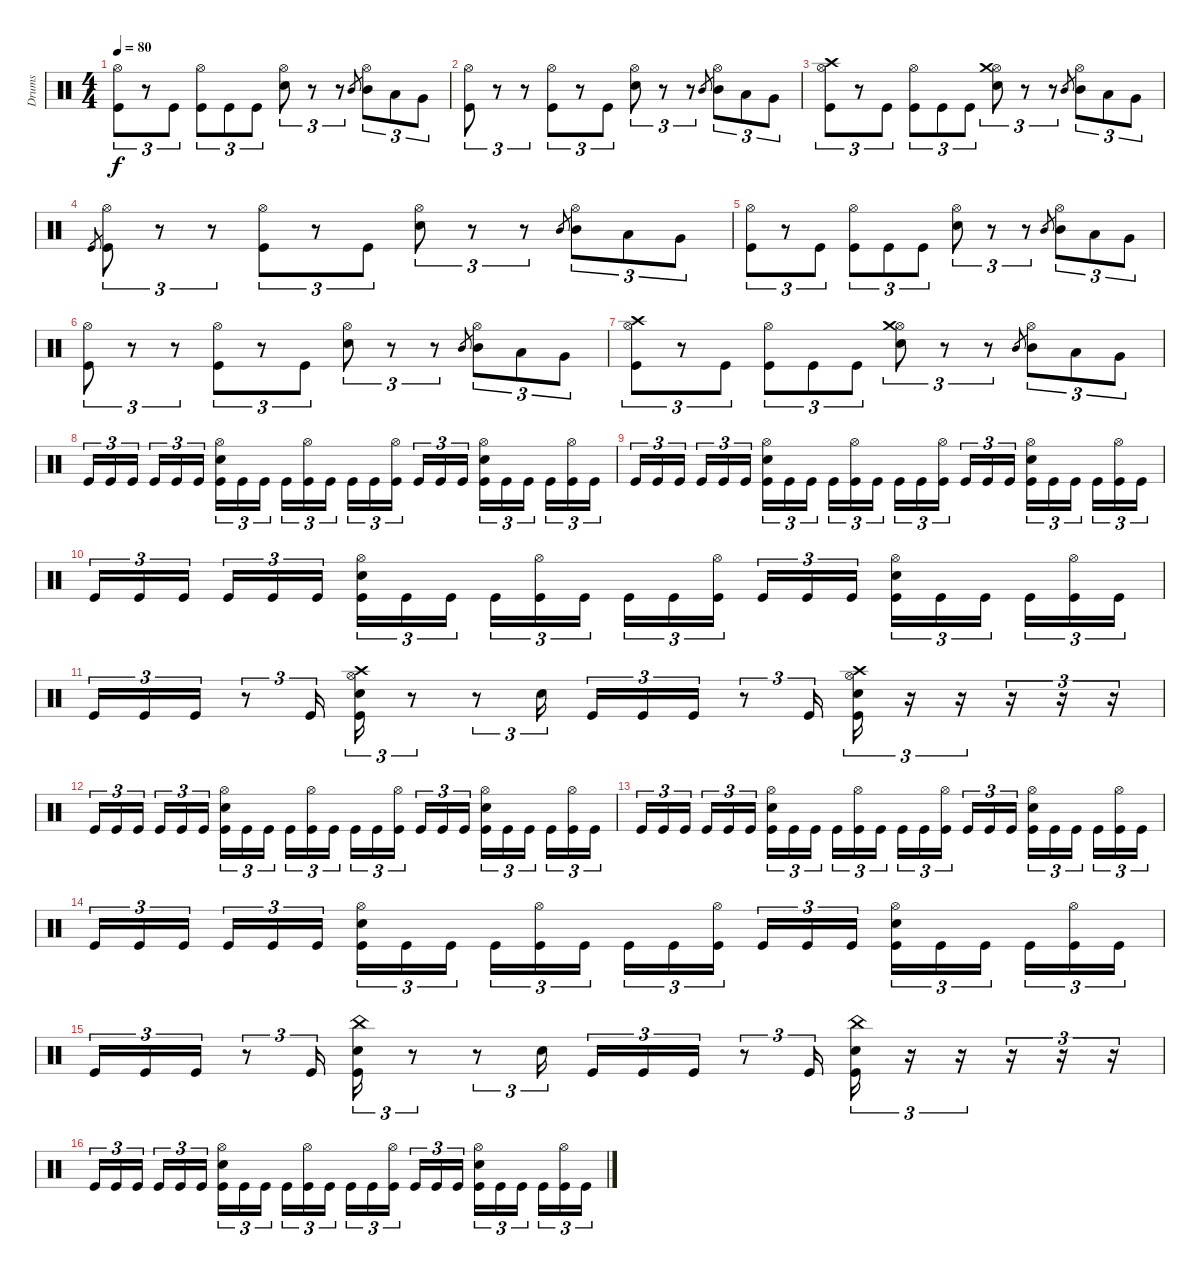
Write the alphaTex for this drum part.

\track ("Drums" "Drums") {instrument percussion}
\staff {score}
\articulation defaults
\ts (4 4)
\tempo 80
\clef neutral
\ks c
("Hi-Hat (open)" "Kick (hit)").8{tu (3 2) dy f} r.8{tu (3 2)} "Kick (hit)".8{tu (3 2)} ("Hi-Hat (open)" "Kick (hit)").8{tu (3 2)} "Kick (hit)".8{tu (3 2)} "Kick (hit)".8{tu (3 2)} ("Hi-Hat (open)" "Snare (hit) 2").8{tu (3 2)} r.8{tu (3 2)} r.8{tu (3 2)} "Mid Tom (hit)".8{gr} ("Hi-Hat (open)" "Mid Tom (hit)").8{tu (3 2)} "Low Tom (hit)".8{tu (3 2)} "Very Low Tom (hit)".8{tu (3 2)} |
("Hi-Hat (open)" "Kick (hit)").8{tu (3 2)} r.8{tu (3 2)} r.8{tu (3 2)} ("Hi-Hat (open)" "Kick (hit)").8{tu (3 2)} r.8{tu (3 2)} "Kick (hit)".8{tu (3 2)} ("Hi-Hat (open)" "Snare (hit) 2").8{tu (3 2)} r.8{tu (3 2)} r.8{tu (3 2)} "Mid Tom (hit)".8{gr} ("Hi-Hat (open)" "Mid Tom (hit)").8{tu (3 2)} "Low Tom (hit)".8{tu (3 2)} "Very Low Tom (hit)".8{tu (3 2)} |
("Hi-Hat (open)" "Crash high (hit)" "Kick (hit)").8{tu (3 2)} r.8{tu (3 2)} "Kick (hit)".8{tu (3 2)} ("Hi-Hat (open)" "Kick (hit)").8{tu (3 2)} "Kick (hit)".8{tu (3 2)} "Kick (hit)".8{tu (3 2)} ("Hi-Hat (open)" "Crash medium (hit)" "Snare (hit) 2").8{tu (3 2)} r.8{tu (3 2)} r.8{tu (3 2)} "Mid Tom (hit)".8{gr} ("Hi-Hat (open)" "Mid Tom (hit)").8{tu (3 2)} "Low Tom (hit)".8{tu (3 2)} "Very Low Tom (hit)".8{tu (3 2)} |
"Kick (hit)".8{gr} ("Hi-Hat (open)" "Kick (hit)").8{tu (3 2)} r.8{tu (3 2)} r.8{tu (3 2)} ("Hi-Hat (open)" "Kick (hit)").8{tu (3 2)} r.8{tu (3 2)} "Kick (hit)".8{tu (3 2)} ("Hi-Hat (open)" "Snare (hit) 2").8{tu (3 2)} r.8{tu (3 2)} r.8{tu (3 2)} "Mid Tom (hit)".8{gr} ("Hi-Hat (open)" "Mid Tom (hit)").8{tu (3 2)} "Low Tom (hit)".8{tu (3 2)} "Very Low Tom (hit)".8{tu (3 2)} |
("Hi-Hat (open)" "Kick (hit)").8{tu (3 2)} r.8{tu (3 2)} "Kick (hit)".8{tu (3 2)} ("Hi-Hat (open)" "Kick (hit)").8{tu (3 2)} "Kick (hit)".8{tu (3 2)} "Kick (hit)".8{tu (3 2)} ("Hi-Hat (open)" "Snare (hit) 2").8{tu (3 2)} r.8{tu (3 2)} r.8{tu (3 2)} "Mid Tom (hit)".8{gr} ("Hi-Hat (open)" "Mid Tom (hit)").8{tu (3 2)} "Low Tom (hit)".8{tu (3 2)} "Very Low Tom (hit)".8{tu (3 2)} |
("Hi-Hat (open)" "Kick (hit)").8{tu (3 2)} r.8{tu (3 2)} r.8{tu (3 2)} ("Hi-Hat (open)" "Kick (hit)").8{tu (3 2)} r.8{tu (3 2)} "Kick (hit)".8{tu (3 2)} ("Hi-Hat (open)" "Snare (hit) 2").8{tu (3 2)} r.8{tu (3 2)} r.8{tu (3 2)} "Mid Tom (hit)".8{gr} ("Hi-Hat (open)" "Mid Tom (hit)").8{tu (3 2)} "Low Tom (hit)".8{tu (3 2)} "Very Low Tom (hit)".8{tu (3 2)} |
("Hi-Hat (open)" "Crash high (hit)" "Kick (hit)").8{tu (3 2)} r.8{tu (3 2)} "Kick (hit)".8{tu (3 2)} ("Hi-Hat (open)" "Kick (hit)").8{tu (3 2)} "Kick (hit)".8{tu (3 2)} "Kick (hit)".8{tu (3 2)} ("Hi-Hat (open)" "Crash medium (hit)" "Snare (hit) 2").8{tu (3 2)} r.8{tu (3 2)} r.8{tu (3 2)} "Mid Tom (hit)".8{gr} ("Hi-Hat (open)" "Mid Tom (hit)").8{tu (3 2)} "Low Tom (hit)".8{tu (3 2)} "Very Low Tom (hit)".8{tu (3 2)} |
"Kick (hit)".16{tu (3 2)} "Kick (hit)".16{tu (3 2)} "Kick (hit)".16{tu (3 2)} "Kick (hit)".16{tu (3 2)} "Kick (hit)".16{tu (3 2)} "Kick (hit)".16{tu (3 2)} ("Hi-Hat (open)" "Snare (hit) 2" "Kick (hit)").16{tu (3 2)} "Kick (hit)".16{tu (3 2)} "Kick (hit)".16{tu (3 2)} "Kick (hit)".16{tu (3 2)} ("Hi-Hat (open)" "Kick (hit)").16{tu (3 2)} "Kick (hit)".16{tu (3 2)} "Kick (hit)".16{tu (3 2)} "Kick (hit)".16{tu (3 2)} ("Hi-Hat (open)" "Kick (hit)").16{tu (3 2)} "Kick (hit)".16{tu (3 2)} "Kick (hit)".16{tu (3 2)} "Kick (hit)".16{tu (3 2)} ("Hi-Hat (open)" "Snare (hit) 2" "Kick (hit)").16{tu (3 2)} "Kick (hit)".16{tu (3 2)} "Kick (hit)".16{tu (3 2)} "Kick (hit)".16{tu (3 2)} ("Hi-Hat (open)" "Kick (hit)").16{tu (3 2)} "Kick (hit)".16{tu (3 2)} |
"Kick (hit)".16{tu (3 2)} "Kick (hit)".16{tu (3 2)} "Kick (hit)".16{tu (3 2)} "Kick (hit)".16{tu (3 2)} "Kick (hit)".16{tu (3 2)} "Kick (hit)".16{tu (3 2)} ("Hi-Hat (open)" "Snare (hit) 2" "Kick (hit)").16{tu (3 2)} "Kick (hit)".16{tu (3 2)} "Kick (hit)".16{tu (3 2)} "Kick (hit)".16{tu (3 2)} ("Hi-Hat (open)" "Kick (hit)").16{tu (3 2)} "Kick (hit)".16{tu (3 2)} "Kick (hit)".16{tu (3 2)} "Kick (hit)".16{tu (3 2)} ("Hi-Hat (open)" "Kick (hit)").16{tu (3 2)} "Kick (hit)".16{tu (3 2)} "Kick (hit)".16{tu (3 2)} "Kick (hit)".16{tu (3 2)} ("Hi-Hat (open)" "Snare (hit) 2" "Kick (hit)").16{tu (3 2)} "Kick (hit)".16{tu (3 2)} "Kick (hit)".16{tu (3 2)} "Kick (hit)".16{tu (3 2)} ("Hi-Hat (open)" "Kick (hit)").16{tu (3 2)} "Kick (hit)".16{tu (3 2)} |
"Kick (hit)".16{tu (3 2)} "Kick (hit)".16{tu (3 2)} "Kick (hit)".16{tu (3 2)} "Kick (hit)".16{tu (3 2)} "Kick (hit)".16{tu (3 2)} "Kick (hit)".16{tu (3 2)} ("Hi-Hat (open)" "Snare (hit) 2" "Kick (hit)").16{tu (3 2)} "Kick (hit)".16{tu (3 2)} "Kick (hit)".16{tu (3 2)} "Kick (hit)".16{tu (3 2)} ("Hi-Hat (open)" "Kick (hit)").16{tu (3 2)} "Kick (hit)".16{tu (3 2)} "Kick (hit)".16{tu (3 2)} "Kick (hit)".16{tu (3 2)} ("Hi-Hat (open)" "Kick (hit)").16{tu (3 2)} "Kick (hit)".16{tu (3 2)} "Kick (hit)".16{tu (3 2)} "Kick (hit)".16{tu (3 2)} ("Hi-Hat (open)" "Snare (hit) 2" "Kick (hit)").16{tu (3 2)} "Kick (hit)".16{tu (3 2)} "Kick (hit)".16{tu (3 2)} "Kick (hit)".16{tu (3 2)} ("Hi-Hat (open)" "Kick (hit)").16{tu (3 2)} "Kick (hit)".16{tu (3 2)} |
"Kick (hit)".16{tu (3 2)} "Kick (hit)".16{tu (3 2)} "Kick (hit)".16{tu (3 2)} r.8{tu (3 2)} "Kick (hit)".16{tu (3 2)} ("Crash high (hit)" "Hi-Hat (open)" "Snare (hit) 2" "Kick (hit)").16{tu (3 2)} r.8{tu (3 2)} r.8{tu (3 2)} "Snare (hit) 2".16{tu (3 2)} "Kick (hit)".16{tu (3 2)} "Kick (hit)".16{tu (3 2)} "Kick (hit)".16{tu (3 2)} r.8{tu (3 2)} "Kick (hit)".16{tu (3 2)} ("Crash high (hit)" "Hi-Hat (open)" "Snare (hit) 2" "Kick (hit)").16{tu (3 2)} r.16{tu (3 2)} r.16{tu (3 2)} r.16{tu (3 2)} r.16{tu (3 2)} r.16{tu (3 2)} |
"Kick (hit)".16{tu (3 2)} "Kick (hit)".16{tu (3 2)} "Kick (hit)".16{tu (3 2)} "Kick (hit)".16{tu (3 2)} "Kick (hit)".16{tu (3 2)} "Kick (hit)".16{tu (3 2)} ("Hi-Hat (open)" "Snare (hit) 2" "Kick (hit)").16{tu (3 2)} "Kick (hit)".16{tu (3 2)} "Kick (hit)".16{tu (3 2)} "Kick (hit)".16{tu (3 2)} ("Hi-Hat (open)" "Kick (hit)").16{tu (3 2)} "Kick (hit)".16{tu (3 2)} "Kick (hit)".16{tu (3 2)} "Kick (hit)".16{tu (3 2)} ("Hi-Hat (open)" "Kick (hit)").16{tu (3 2)} "Kick (hit)".16{tu (3 2)} "Kick (hit)".16{tu (3 2)} "Kick (hit)".16{tu (3 2)} ("Hi-Hat (open)" "Snare (hit) 2" "Kick (hit)").16{tu (3 2)} "Kick (hit)".16{tu (3 2)} "Kick (hit)".16{tu (3 2)} "Kick (hit)".16{tu (3 2)} ("Hi-Hat (open)" "Kick (hit)").16{tu (3 2)} "Kick (hit)".16{tu (3 2)} |
"Kick (hit)".16{tu (3 2)} "Kick (hit)".16{tu (3 2)} "Kick (hit)".16{tu (3 2)} "Kick (hit)".16{tu (3 2)} "Kick (hit)".16{tu (3 2)} "Kick (hit)".16{tu (3 2)} ("Hi-Hat (open)" "Snare (hit) 2" "Kick (hit)").16{tu (3 2)} "Kick (hit)".16{tu (3 2)} "Kick (hit)".16{tu (3 2)} "Kick (hit)".16{tu (3 2)} ("Hi-Hat (open)" "Kick (hit)").16{tu (3 2)} "Kick (hit)".16{tu (3 2)} "Kick (hit)".16{tu (3 2)} "Kick (hit)".16{tu (3 2)} ("Hi-Hat (open)" "Kick (hit)").16{tu (3 2)} "Kick (hit)".16{tu (3 2)} "Kick (hit)".16{tu (3 2)} "Kick (hit)".16{tu (3 2)} ("Hi-Hat (open)" "Snare (hit) 2" "Kick (hit)").16{tu (3 2)} "Kick (hit)".16{tu (3 2)} "Kick (hit)".16{tu (3 2)} "Kick (hit)".16{tu (3 2)} ("Hi-Hat (open)" "Kick (hit)").16{tu (3 2)} "Kick (hit)".16{tu (3 2)} |
"Kick (hit)".16{tu (3 2)} "Kick (hit)".16{tu (3 2)} "Kick (hit)".16{tu (3 2)} "Kick (hit)".16{tu (3 2)} "Kick (hit)".16{tu (3 2)} "Kick (hit)".16{tu (3 2)} ("Hi-Hat (open)" "Snare (hit) 2" "Kick (hit)").16{tu (3 2)} "Kick (hit)".16{tu (3 2)} "Kick (hit)".16{tu (3 2)} "Kick (hit)".16{tu (3 2)} ("Hi-Hat (open)" "Kick (hit)").16{tu (3 2)} "Kick (hit)".16{tu (3 2)} "Kick (hit)".16{tu (3 2)} "Kick (hit)".16{tu (3 2)} ("Hi-Hat (open)" "Kick (hit)").16{tu (3 2)} "Kick (hit)".16{tu (3 2)} "Kick (hit)".16{tu (3 2)} "Kick (hit)".16{tu (3 2)} ("Hi-Hat (open)" "Snare (hit) 2" "Kick (hit)").16{tu (3 2)} "Kick (hit)".16{tu (3 2)} "Kick (hit)".16{tu (3 2)} "Kick (hit)".16{tu (3 2)} ("Hi-Hat (open)" "Kick (hit)").16{tu (3 2)} "Kick (hit)".16{tu (3 2)} |
"Kick (hit)".16{tu (3 2)} "Kick (hit)".16{tu (3 2)} "Kick (hit)".16{tu (3 2)} r.8{tu (3 2)} "Kick (hit)".16{tu (3 2)} ("China (hit)" "Snare (hit) 2" "Kick (hit)").16{tu (3 2)} r.8{tu (3 2)} r.8{tu (3 2)} "Snare (hit) 2".16{tu (3 2)} "Kick (hit)".16{tu (3 2)} "Kick (hit)".16{tu (3 2)} "Kick (hit)".16{tu (3 2)} r.8{tu (3 2)} "Kick (hit)".16{tu (3 2)} ("China (hit)" "Snare (hit) 2" "Kick (hit)").16{tu (3 2)} r.16{tu (3 2)} r.16{tu (3 2)} r.16{tu (3 2)} r.16{tu (3 2)} r.16{tu (3 2)} |
"Kick (hit)".16{tu (3 2)} "Kick (hit)".16{tu (3 2)} "Kick (hit)".16{tu (3 2)} "Kick (hit)".16{tu (3 2)} "Kick (hit)".16{tu (3 2)} "Kick (hit)".16{tu (3 2)} ("Hi-Hat (open)" "Snare (hit) 2" "Kick (hit)").16{tu (3 2)} "Kick (hit)".16{tu (3 2)} "Kick (hit)".16{tu (3 2)} "Kick (hit)".16{tu (3 2)} ("Hi-Hat (open)" "Kick (hit)").16{tu (3 2)} "Kick (hit)".16{tu (3 2)} "Kick (hit)".16{tu (3 2)} "Kick (hit)".16{tu (3 2)} ("Hi-Hat (open)" "Kick (hit)").16{tu (3 2)} "Kick (hit)".16{tu (3 2)} "Kick (hit)".16{tu (3 2)} "Kick (hit)".16{tu (3 2)} ("Hi-Hat (open)" "Snare (hit) 2" "Kick (hit)").16{tu (3 2)} "Kick (hit)".16{tu (3 2)} "Kick (hit)".16{tu (3 2)} "Kick (hit)".16{tu (3 2)} ("Hi-Hat (open)" "Kick (hit)").16{tu (3 2)} "Kick (hit)".16{tu (3 2)}
